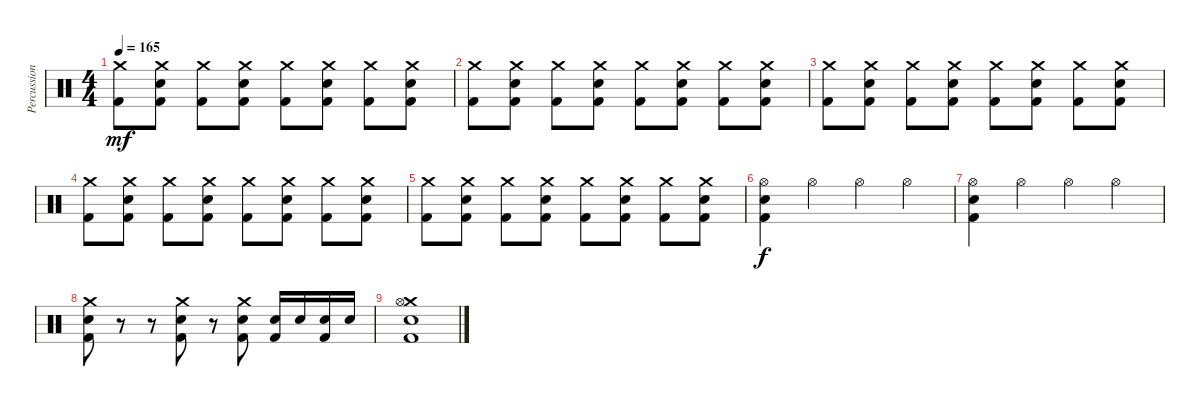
\track ("Percussion" "Percussion") {instrument percussion}
\staff {score}
\articulation defaults
\ts (4 4)
\tempo 165
\clef neutral
\ks c
("Crash medium (hit)" "Kick (hit) 2").8{dy mf} ("Crash medium (hit)" "Snare (hit) 2" "Kick (hit) 2").8 ("Crash medium (hit)" "Kick (hit) 2").8 ("Crash medium (hit)" "Snare (hit) 2" "Kick (hit) 2").8 ("Crash medium (hit)" "Kick (hit) 2").8 ("Crash medium (hit)" "Snare (hit) 2" "Kick (hit) 2").8 ("Crash medium (hit)" "Kick (hit) 2").8 ("Crash medium (hit)" "Snare (hit) 2" "Kick (hit) 2").8 |
("Crash medium (hit)" "Kick (hit) 2").8 ("Crash medium (hit)" "Snare (hit) 2" "Kick (hit) 2").8 ("Crash medium (hit)" "Kick (hit) 2").8 ("Crash medium (hit)" "Snare (hit) 2" "Kick (hit) 2").8 ("Crash medium (hit)" "Kick (hit) 2").8 ("Crash medium (hit)" "Snare (hit) 2" "Kick (hit) 2").8 ("Crash medium (hit)" "Kick (hit) 2").8 ("Crash medium (hit)" "Snare (hit) 2" "Kick (hit) 2").8 |
("Crash medium (hit)" "Kick (hit) 2").8 ("Crash medium (hit)" "Snare (hit) 2" "Kick (hit) 2").8 ("Crash medium (hit)" "Kick (hit) 2").8 ("Crash medium (hit)" "Snare (hit) 2" "Kick (hit) 2").8 ("Crash medium (hit)" "Kick (hit) 2").8 ("Crash medium (hit)" "Snare (hit) 2" "Kick (hit) 2").8 ("Crash medium (hit)" "Kick (hit) 2").8 ("Crash medium (hit)" "Snare (hit) 2" "Kick (hit) 2").8 |
("Crash medium (hit)" "Kick (hit) 2").8 ("Crash medium (hit)" "Snare (hit) 2" "Kick (hit) 2").8 ("Crash medium (hit)" "Kick (hit) 2").8 ("Crash medium (hit)" "Snare (hit) 2" "Kick (hit) 2").8 ("Crash medium (hit)" "Kick (hit) 2").8 ("Crash medium (hit)" "Snare (hit) 2" "Kick (hit) 2").8 ("Crash medium (hit)" "Kick (hit) 2").8 ("Crash medium (hit)" "Snare (hit) 2" "Kick (hit) 2").8 |
("Crash medium (hit)" "Kick (hit) 2").8 ("Crash medium (hit)" "Snare (hit) 2" "Kick (hit) 2").8 ("Crash medium (hit)" "Kick (hit) 2").8 ("Crash medium (hit)" "Snare (hit) 2" "Kick (hit) 2").8 ("Crash medium (hit)" "Kick (hit) 2").8 ("Crash medium (hit)" "Snare (hit) 2" "Kick (hit) 2").8 ("Crash medium (hit)" "Kick (hit) 2").8 ("Crash medium (hit)" "Snare (hit) 2" "Kick (hit) 2").8 |
("Hi-Hat (open)" "Snare (hit) 2" "Kick (hit) 2").4{dy f} "Hi-Hat (open)".4 "Hi-Hat (open)".4 "Hi-Hat (open)".4 |
("Hi-Hat (open)" "Snare (hit) 2" "Kick (hit) 2").4 "Hi-Hat (open)".4 "Hi-Hat (open)".4 "Hi-Hat (open)".4 |
("Crash medium (hit)" "Snare (hit) 2" "Kick (hit) 2").8 r.8 r.8 ("Crash medium (hit)" "Snare (hit) 2" "Kick (hit) 2").8 r.8 ("Crash medium (hit)" "Snare (hit) 2" "Kick (hit) 2").8 ("Snare (hit) 2" "Kick (hit) 2").16 "Snare (hit) 2".16 ("Snare (hit) 2" "Kick (hit) 2").16 "Snare (hit) 2".16 |
("Crash medium (hit)" "Hi-Hat (open)" "Snare (hit) 2" "Kick (hit) 2").1
